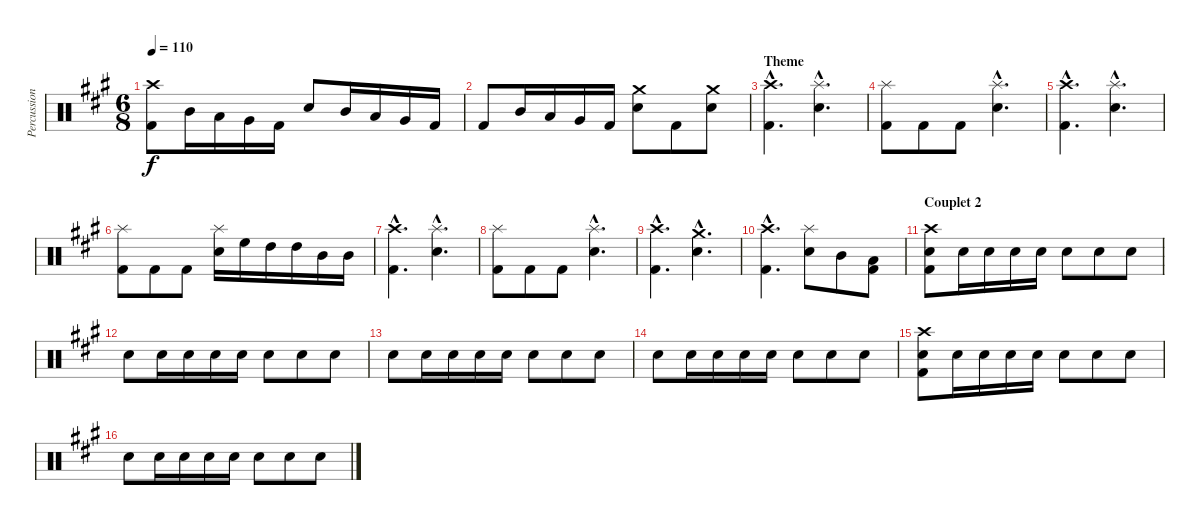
\track ("Percussions" "Percussion") {instrument percussion}
\staff {score}
\articulation defaults
\ts (6 8)
\tempo 110
\clef neutral
\ks a
("Crash high (hit)" "Kick (hit) 2").8{dy f} "Mid Tom (hit)".16 "Low Tom (hit)".16 "Very Low Tom (hit)".16 "Kick (hit) 2".16 "Electric Snare (hit)".8 "Mid Tom (hit)".16 "Low Tom (hit)".16 "Very Low Tom (hit)".16 "Kick (hit) 2".16 |
"Kick (hit) 2".8 "Mid Tom (hit)".16 "Low Tom (hit)".16 "Very Low Tom (hit)".16 "Kick (hit) 2".16 ("Crash medium (hit)" "Electric Snare (hit)").8 "Kick (hit) 2".8 ("Crash medium (hit)" "Electric Snare (hit)").8 |
\section ("" "Theme")
("Crash high (hit)"{hac} "Kick (hit) 2"{hac}).4{d} ("Splash (hit)"{hac} "Electric Snare (hit)"{hac}).4{d} |
("Splash (hit)" "Kick (hit) 2").8 "Kick (hit) 2".8 "Kick (hit) 2".8 ("Splash (hit)"{hac} "Electric Snare (hit)"{hac}).4{d} |
("Crash high (hit)"{hac} "Kick (hit) 2"{hac}).4{d} ("Splash (hit)"{hac} "Electric Snare (hit)"{hac}).4{d} |
("Splash (hit)" "Kick (hit) 2").8 "Kick (hit) 2".8 "Kick (hit) 2".8 ("Splash (hit)" "Electric Snare (hit)").16 "High Floor Tom (hit)".16 "High Tom (hit)".16 "High Tom (hit)".16 "Mid Tom (hit)".16 "Mid Tom (hit)".16 |
("Crash high (hit)"{hac} "Kick (hit) 2"{hac}).4{d} ("Splash (hit)"{hac} "Electric Snare (hit)"{hac}).4{d} |
("Splash (hit)" "Kick (hit) 2").8 "Kick (hit) 2".8 "Kick (hit) 2".8 ("Splash (hit)"{hac} "Electric Snare (hit)"{hac}).4{d} |
("Crash high (hit)"{hac} "Kick (hit) 2"{hac}).4{d} ("Crash medium (hit)"{hac} "Electric Snare (hit)"{hac}).4{d} |
("Crash high (hit)"{hac} "Kick (hit) 2"{hac}).4{d} ("Splash (hit)" "Electric Snare (hit)").8 "Mid Tom (hit)".8 ("Low Tom (hit)" "Kick (hit) 2").8 |
\section ("" "Couplet 2")
("Crash high (hit)" "Electric Snare (hit)" "Kick (hit) 2").8 "Electric Snare (hit)".16 "Electric Snare (hit)".16 "Electric Snare (hit)".16 "Electric Snare (hit)".16 "Electric Snare (hit)".8 "Electric Snare (hit)".8 "Electric Snare (hit)".8 |
"Electric Snare (hit)".8 "Electric Snare (hit)".16 "Electric Snare (hit)".16 "Electric Snare (hit)".16 "Electric Snare (hit)".16 "Electric Snare (hit)".8 "Electric Snare (hit)".8 "Electric Snare (hit)".8 |
"Electric Snare (hit)".8 "Electric Snare (hit)".16 "Electric Snare (hit)".16 "Electric Snare (hit)".16 "Electric Snare (hit)".16 "Electric Snare (hit)".8 "Electric Snare (hit)".8 "Electric Snare (hit)".8 |
"Electric Snare (hit)".8 "Electric Snare (hit)".16 "Electric Snare (hit)".16 "Electric Snare (hit)".16 "Electric Snare (hit)".16 "Electric Snare (hit)".8 "Electric Snare (hit)".8 "Electric Snare (hit)".8 |
("Crash high (hit)" "Electric Snare (hit)" "Kick (hit) 2").8 "Electric Snare (hit)".16 "Electric Snare (hit)".16 "Electric Snare (hit)".16 "Electric Snare (hit)".16 "Electric Snare (hit)".8 "Electric Snare (hit)".8 "Electric Snare (hit)".8 |
"Electric Snare (hit)".8 "Electric Snare (hit)".16 "Electric Snare (hit)".16 "Electric Snare (hit)".16 "Electric Snare (hit)".16 "Electric Snare (hit)".8 "Electric Snare (hit)".8 "Electric Snare (hit)".8
